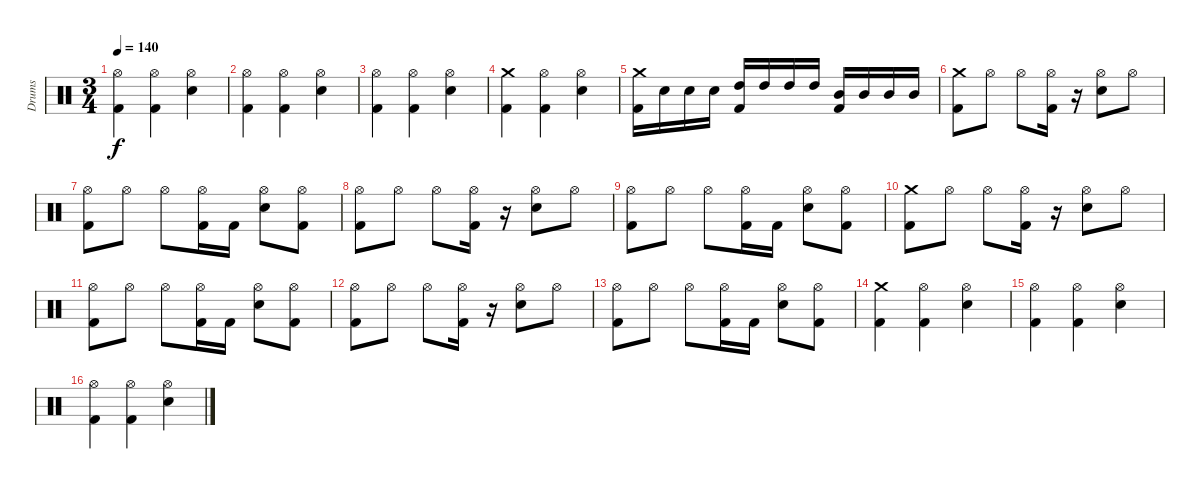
\track ("Drums" "Drums") {instrument percussion}
\staff {score}
\articulation defaults
\ts (3 4)
\tempo 140
\clef neutral
\ks c
("Kick (hit) 2" "Hi-Hat (open)").4{dy f} ("Kick (hit) 2" "Hi-Hat (open)").4 ("Hi-Hat (open)" "Electric Snare (hit)").4 |
("Kick (hit) 2" "Hi-Hat (open)").4 ("Kick (hit) 2" "Hi-Hat (open)").4 ("Hi-Hat (open)" "Electric Snare (hit)").4 |
("Kick (hit) 2" "Hi-Hat (open)").4 ("Kick (hit) 2" "Hi-Hat (open)").4 ("Hi-Hat (open)" "Electric Snare (hit)").4 |
("Kick (hit) 2" "Crash medium (hit)").4 ("Kick (hit) 2" "Hi-Hat (open)").4 ("Hi-Hat (open)" "Electric Snare (hit)").4 |
("Kick (hit) 2" "Crash medium (hit)").16 "Electric Snare (hit)".16 "Electric Snare (hit)".16 "Electric Snare (hit)".16 ("Kick (hit) 2" "High Tom (hit)").16 "High Tom (hit)".16 "High Tom (hit)".16 "High Tom (hit)".16 ("Kick (hit) 2" "Mid Tom (hit)").16 "Mid Tom (hit)".16 "Mid Tom (hit)".16 "Mid Tom (hit)".16 |
("Kick (hit) 2" "Crash medium (hit)").8 "Hi-Hat (open)".8 "Hi-Hat (open)".8 ("Kick (hit) 2" "Hi-Hat (open)").16 r.16 ("Electric Snare (hit)" "Hi-Hat (open)").8 "Hi-Hat (open)".8 |
("Kick (hit) 2" "Hi-Hat (open)").8 "Hi-Hat (open)".8 "Hi-Hat (open)".8 ("Kick (hit) 2" "Hi-Hat (open)").16 "Kick (hit) 2".16 ("Electric Snare (hit)" "Hi-Hat (open)").8 ("Kick (hit) 2" "Hi-Hat (open)").8 |
("Kick (hit) 2" "Hi-Hat (open)").8 "Hi-Hat (open)".8 "Hi-Hat (open)".8 ("Kick (hit) 2" "Hi-Hat (open)").16 r.16 ("Electric Snare (hit)" "Hi-Hat (open)").8 "Hi-Hat (open)".8 |
("Kick (hit) 2" "Hi-Hat (open)").8 "Hi-Hat (open)".8 "Hi-Hat (open)".8 ("Kick (hit) 2" "Hi-Hat (open)").16 "Kick (hit) 2".16 ("Electric Snare (hit)" "Hi-Hat (open)").8 ("Kick (hit) 2" "Hi-Hat (open)").8 |
("Kick (hit) 2" "Crash medium (hit)").8 "Hi-Hat (open)".8 "Hi-Hat (open)".8 ("Kick (hit) 2" "Hi-Hat (open)").16 r.16 ("Electric Snare (hit)" "Hi-Hat (open)").8 "Hi-Hat (open)".8 |
("Kick (hit) 2" "Hi-Hat (open)").8 "Hi-Hat (open)".8 "Hi-Hat (open)".8 ("Kick (hit) 2" "Hi-Hat (open)").16 "Kick (hit) 2".16 ("Electric Snare (hit)" "Hi-Hat (open)").8 ("Kick (hit) 2" "Hi-Hat (open)").8 |
("Kick (hit) 2" "Hi-Hat (open)").8 "Hi-Hat (open)".8 "Hi-Hat (open)".8 ("Kick (hit) 2" "Hi-Hat (open)").16 r.16 ("Electric Snare (hit)" "Hi-Hat (open)").8 "Hi-Hat (open)".8 |
("Kick (hit) 2" "Hi-Hat (open)").8 "Hi-Hat (open)".8 "Hi-Hat (open)".8 ("Kick (hit) 2" "Hi-Hat (open)").16 "Kick (hit) 2".16 ("Electric Snare (hit)" "Hi-Hat (open)").8 ("Kick (hit) 2" "Hi-Hat (open)").8 |
("Kick (hit) 2" "Crash medium (hit)").4 ("Kick (hit) 2" "Hi-Hat (open)").4 ("Hi-Hat (open)" "Electric Snare (hit)").4 |
("Kick (hit) 2" "Hi-Hat (open)").4 ("Kick (hit) 2" "Hi-Hat (open)").4 ("Hi-Hat (open)" "Electric Snare (hit)").4 |
("Kick (hit) 2" "Hi-Hat (open)").4 ("Kick (hit) 2" "Hi-Hat (open)").4 ("Hi-Hat (open)" "Electric Snare (hit)").4
